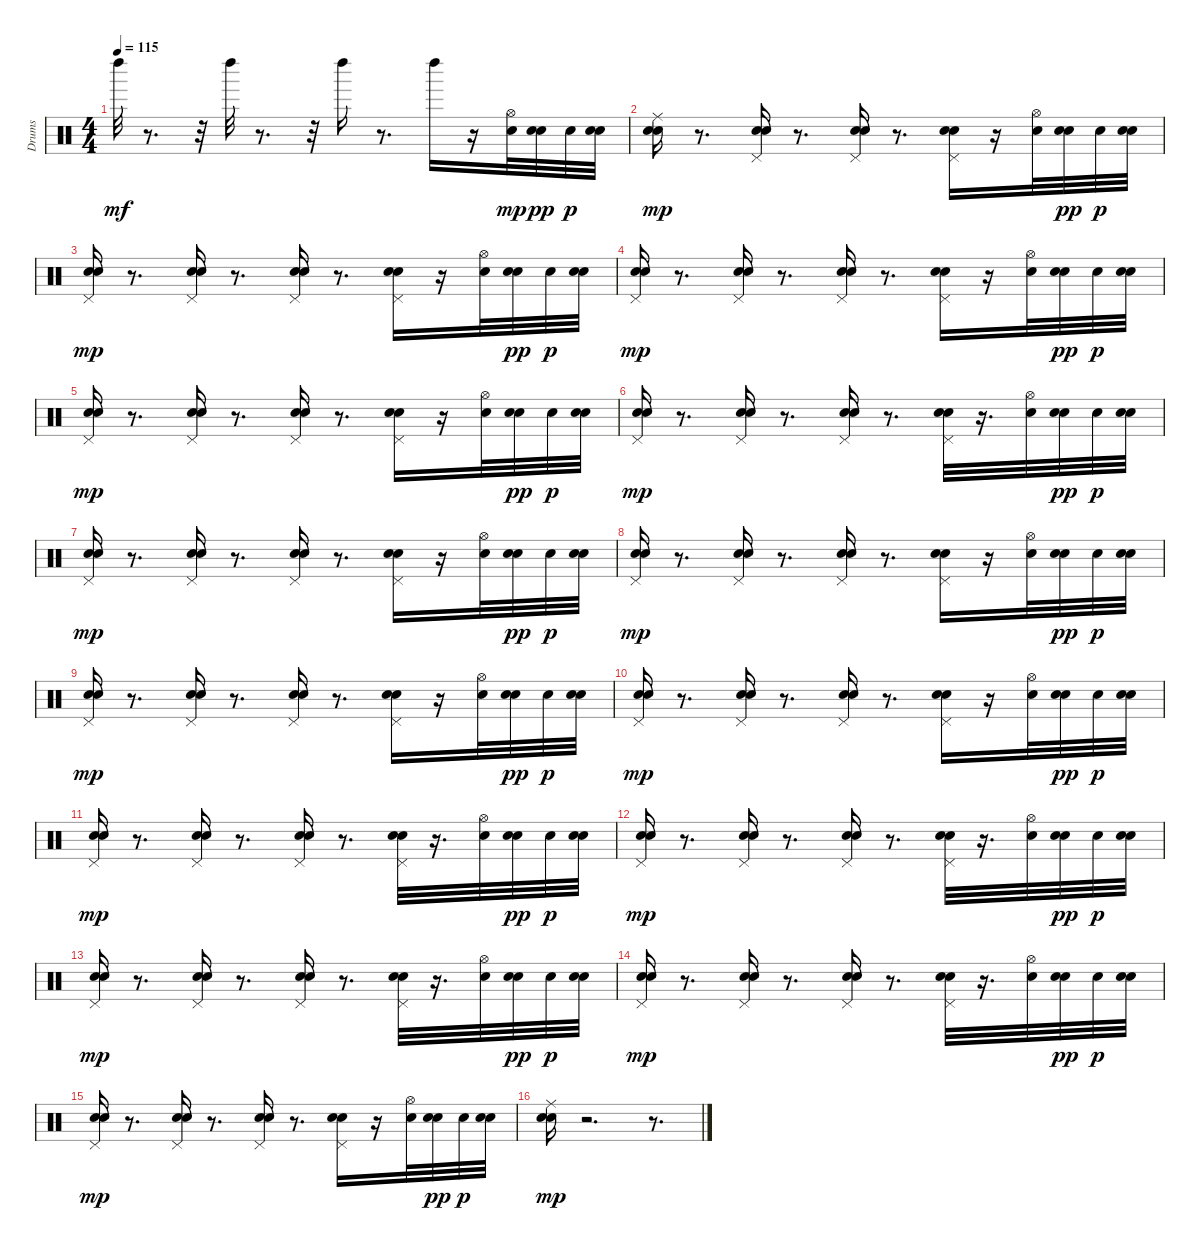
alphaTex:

\track ("Drums" "Drums") {instrument percussion}
\staff {score}
\articulation defaults
\ts (4 4)
\tempo 115
\clef neutral
\ks c "Left Maraca (hit)".32{dy mf}
r.8{d} r.32 "Left Maraca (hit)".32 r.8{d} r.32 "Left Maraca (hit)".16 r.8{d} "Left Maraca (hit)".16 r.16 ("Snare (hit) 2" "Hi-Hat (open)").32{dy mp} ("Snare (hit) 2" "Snare (hit) 2").32{dy pp} "Snare (hit) 2".32{dy p} ("Snare (hit) 2" "Snare (hit) 2").32 |
("Snare (hit) 2" "Snare (hit) 2" "Ride (middle)").16{dy mp} r.8{d} ("Snare (hit) 2" "Snare (hit) 2" "Pedal Hi-Hat (hit)").16 r.8{d} ("Snare (hit) 2" "Snare (hit) 2" "Pedal Hi-Hat (hit)").16 r.8{d} ("Snare (hit) 2" "Snare (hit) 2" "Pedal Hi-Hat (hit)").16 r.16 ("Snare (hit) 2" "Hi-Hat (open)").32 ("Snare (hit) 2" "Snare (hit) 2").32{dy pp} "Snare (hit) 2".32{dy p} ("Snare (hit) 2" "Snare (hit) 2").32 |
("Snare (hit) 2" "Snare (hit) 2" "Pedal Hi-Hat (hit)").16{dy mp} r.8{d} ("Snare (hit) 2" "Snare (hit) 2" "Pedal Hi-Hat (hit)").16 r.8{d} ("Snare (hit) 2" "Snare (hit) 2" "Pedal Hi-Hat (hit)").16 r.8{d} ("Snare (hit) 2" "Snare (hit) 2" "Pedal Hi-Hat (hit)").16 r.16 ("Snare (hit) 2" "Hi-Hat (open)").32 ("Snare (hit) 2" "Snare (hit) 2").32{dy pp} "Snare (hit) 2".32{dy p} ("Snare (hit) 2" "Snare (hit) 2").32 |
("Snare (hit) 2" "Snare (hit) 2" "Pedal Hi-Hat (hit)").16{dy mp} r.8{d} ("Snare (hit) 2" "Snare (hit) 2" "Pedal Hi-Hat (hit)").16 r.8{d} ("Snare (hit) 2" "Snare (hit) 2" "Pedal Hi-Hat (hit)").16 r.8{d} ("Snare (hit) 2" "Snare (hit) 2" "Pedal Hi-Hat (hit)").16 r.16 ("Snare (hit) 2" "Hi-Hat (open)").32 ("Snare (hit) 2" "Snare (hit) 2").32{dy pp} "Snare (hit) 2".32{dy p} ("Snare (hit) 2" "Snare (hit) 2").32 |
("Snare (hit) 2" "Snare (hit) 2" "Pedal Hi-Hat (hit)").16{dy mp} r.8{d} ("Snare (hit) 2" "Snare (hit) 2" "Pedal Hi-Hat (hit)").16 r.8{d} ("Snare (hit) 2" "Snare (hit) 2" "Pedal Hi-Hat (hit)").16 r.8{d} ("Snare (hit) 2" "Snare (hit) 2" "Pedal Hi-Hat (hit)").16 r.16 ("Snare (hit) 2" "Hi-Hat (open)").32 ("Snare (hit) 2" "Snare (hit) 2").32{dy pp} "Snare (hit) 2".32{dy p} ("Snare (hit) 2" "Snare (hit) 2").32 |
("Snare (hit) 2" "Snare (hit) 2" "Pedal Hi-Hat (hit)").16{dy mp} r.8{d} ("Snare (hit) 2" "Snare (hit) 2" "Pedal Hi-Hat (hit)").16 r.8{d} ("Snare (hit) 2" "Snare (hit) 2" "Pedal Hi-Hat (hit)").16 r.8{d} ("Snare (hit) 2" "Snare (hit) 2" "Pedal Hi-Hat (hit)").32 r.16{d} ("Snare (hit) 2" "Hi-Hat (open)").32 ("Snare (hit) 2" "Snare (hit) 2").32{dy pp} "Snare (hit) 2".32{dy p} ("Snare (hit) 2" "Snare (hit) 2").32 |
("Snare (hit) 2" "Snare (hit) 2" "Pedal Hi-Hat (hit)").16{dy mp} r.8{d} ("Snare (hit) 2" "Snare (hit) 2" "Pedal Hi-Hat (hit)").16 r.8{d} ("Snare (hit) 2" "Snare (hit) 2" "Pedal Hi-Hat (hit)").16 r.8{d} ("Snare (hit) 2" "Snare (hit) 2" "Pedal Hi-Hat (hit)").16 r.16 ("Snare (hit) 2" "Hi-Hat (open)").32 ("Snare (hit) 2" "Snare (hit) 2").32{dy pp} "Snare (hit) 2".32{dy p} ("Snare (hit) 2" "Snare (hit) 2").32 |
("Snare (hit) 2" "Snare (hit) 2" "Pedal Hi-Hat (hit)").16{dy mp} r.8{d} ("Snare (hit) 2" "Snare (hit) 2" "Pedal Hi-Hat (hit)").16 r.8{d} ("Snare (hit) 2" "Snare (hit) 2" "Pedal Hi-Hat (hit)").16 r.8{d} ("Snare (hit) 2" "Snare (hit) 2" "Pedal Hi-Hat (hit)").16 r.16 ("Snare (hit) 2" "Hi-Hat (open)").32 ("Snare (hit) 2" "Snare (hit) 2").32{dy pp} "Snare (hit) 2".32{dy p} ("Snare (hit) 2" "Snare (hit) 2").32 |
("Snare (hit) 2" "Snare (hit) 2" "Pedal Hi-Hat (hit)").16{dy mp} r.8{d} ("Snare (hit) 2" "Snare (hit) 2" "Pedal Hi-Hat (hit)").16 r.8{d} ("Snare (hit) 2" "Snare (hit) 2" "Pedal Hi-Hat (hit)").16 r.8{d} ("Snare (hit) 2" "Snare (hit) 2" "Pedal Hi-Hat (hit)").16 r.16 ("Snare (hit) 2" "Hi-Hat (open)").32 ("Snare (hit) 2" "Snare (hit) 2").32{dy pp} "Snare (hit) 2".32{dy p} ("Snare (hit) 2" "Snare (hit) 2").32 |
("Snare (hit) 2" "Snare (hit) 2" "Pedal Hi-Hat (hit)").16{dy mp} r.8{d} ("Snare (hit) 2" "Snare (hit) 2" "Pedal Hi-Hat (hit)").16 r.8{d} ("Snare (hit) 2" "Snare (hit) 2" "Pedal Hi-Hat (hit)").16 r.8{d} ("Snare (hit) 2" "Snare (hit) 2" "Pedal Hi-Hat (hit)").16 r.16 ("Snare (hit) 2" "Hi-Hat (open)").32 ("Snare (hit) 2" "Snare (hit) 2").32{dy pp} "Snare (hit) 2".32{dy p} ("Snare (hit) 2" "Snare (hit) 2").32 |
("Snare (hit) 2" "Snare (hit) 2" "Pedal Hi-Hat (hit)").16{dy mp} r.8{d} ("Snare (hit) 2" "Snare (hit) 2" "Pedal Hi-Hat (hit)").16 r.8{d} ("Snare (hit) 2" "Snare (hit) 2" "Pedal Hi-Hat (hit)").16 r.8{d} ("Snare (hit) 2" "Snare (hit) 2" "Pedal Hi-Hat (hit)").32 r.16{d} ("Snare (hit) 2" "Hi-Hat (open)").32 ("Snare (hit) 2" "Snare (hit) 2").32{dy pp} "Snare (hit) 2".32{dy p} ("Snare (hit) 2" "Snare (hit) 2").32 |
("Snare (hit) 2" "Snare (hit) 2" "Pedal Hi-Hat (hit)").16{dy mp} r.8{d} ("Snare (hit) 2" "Snare (hit) 2" "Pedal Hi-Hat (hit)").16 r.8{d} ("Snare (hit) 2" "Snare (hit) 2" "Pedal Hi-Hat (hit)").16 r.8{d} ("Snare (hit) 2" "Snare (hit) 2" "Pedal Hi-Hat (hit)").32 r.16{d} ("Snare (hit) 2" "Hi-Hat (open)").32 ("Snare (hit) 2" "Snare (hit) 2").32{dy pp} "Snare (hit) 2".32{dy p} ("Snare (hit) 2" "Snare (hit) 2").32 |
("Snare (hit) 2" "Snare (hit) 2" "Pedal Hi-Hat (hit)").16{dy mp} r.8{d} ("Snare (hit) 2" "Snare (hit) 2" "Pedal Hi-Hat (hit)").16 r.8{d} ("Snare (hit) 2" "Snare (hit) 2" "Pedal Hi-Hat (hit)").16 r.8{d} ("Snare (hit) 2" "Snare (hit) 2" "Pedal Hi-Hat (hit)").32 r.16{d} ("Snare (hit) 2" "Hi-Hat (open)").32 ("Snare (hit) 2" "Snare (hit) 2").32{dy pp} "Snare (hit) 2".32{dy p} ("Snare (hit) 2" "Snare (hit) 2").32 |
("Snare (hit) 2" "Snare (hit) 2" "Pedal Hi-Hat (hit)").16{dy mp} r.8{d} ("Snare (hit) 2" "Snare (hit) 2" "Pedal Hi-Hat (hit)").16 r.8{d} ("Snare (hit) 2" "Snare (hit) 2" "Pedal Hi-Hat (hit)").16 r.8{d} ("Snare (hit) 2" "Snare (hit) 2" "Pedal Hi-Hat (hit)").32 r.16{d} ("Snare (hit) 2" "Hi-Hat (open)").32 ("Snare (hit) 2" "Snare (hit) 2").32{dy pp} "Snare (hit) 2".32{dy p} ("Snare (hit) 2" "Snare (hit) 2").32 |
("Snare (hit) 2" "Snare (hit) 2" "Pedal Hi-Hat (hit)").16{dy mp} r.8{d} ("Snare (hit) 2" "Snare (hit) 2" "Pedal Hi-Hat (hit)").16 r.8{d} ("Snare (hit) 2" "Snare (hit) 2" "Pedal Hi-Hat (hit)").16 r.8{d} ("Snare (hit) 2" "Snare (hit) 2" "Pedal Hi-Hat (hit)").16 r.16 ("Snare (hit) 2" "Hi-Hat (open)").32 ("Snare (hit) 2" "Snare (hit) 2").32{dy pp} "Snare (hit) 2".32{dy p} ("Snare (hit) 2" "Snare (hit) 2").32 |
("Snare (hit) 2" "Snare (hit) 2" "Ride (middle)").16{dy mp} r.2{d} r.8{d}
